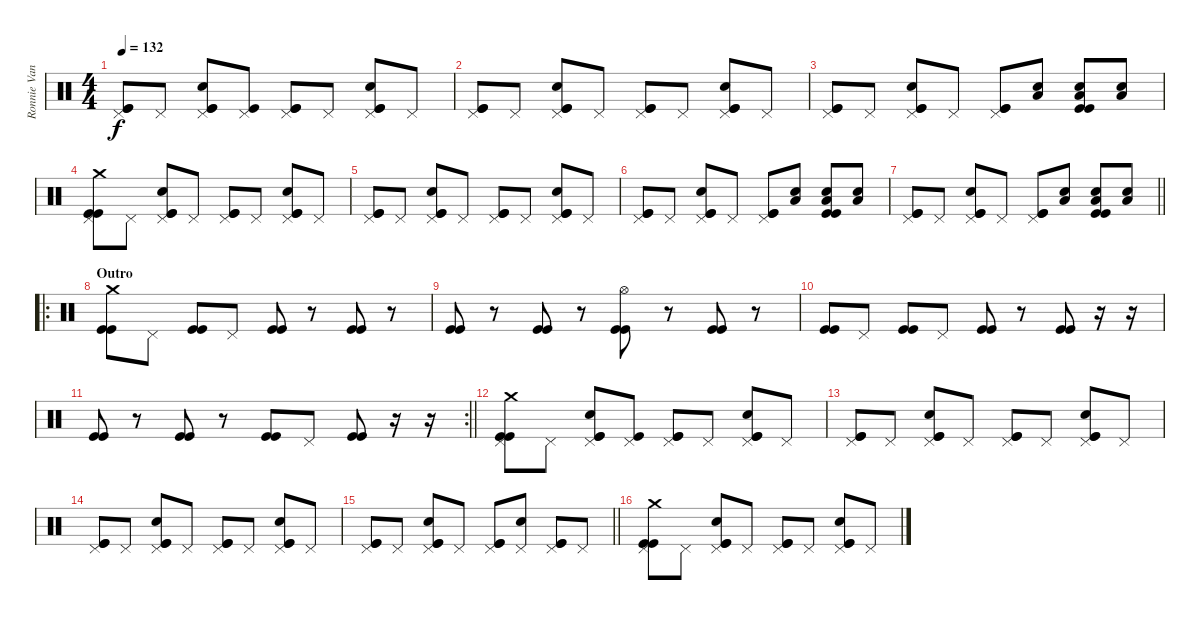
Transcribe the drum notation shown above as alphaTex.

\track ("Ronnie Vanucci" "Ronnie Van") {instrument percussion}
\staff {score}
\articulation defaults
\ts (4 4)
\tempo 132
\clef neutral
\ks c
("Pedal Hi-Hat (hit)" "Kick (hit)" "Kick (hit)").8{dy f} "Pedal Hi-Hat (hit)".8 ("Pedal Hi-Hat (hit)" "Electric Snare (hit)" "Kick (hit)" "Kick (hit)").8 ("Pedal Hi-Hat (hit)" "Kick (hit)").8 ("Pedal Hi-Hat (hit)" "Kick (hit)" "Kick (hit)").8 "Pedal Hi-Hat (hit)".8 ("Pedal Hi-Hat (hit)" "Electric Snare (hit)" "Kick (hit)" "Kick (hit)").8 "Pedal Hi-Hat (hit)".8 |
("Pedal Hi-Hat (hit)" "Kick (hit)" "Kick (hit)").8 "Pedal Hi-Hat (hit)".8 ("Pedal Hi-Hat (hit)" "Electric Snare (hit)" "Kick (hit)" "Kick (hit)").8 "Pedal Hi-Hat (hit)".8 ("Pedal Hi-Hat (hit)" "Kick (hit)" "Kick (hit)").8 "Pedal Hi-Hat (hit)".8 ("Pedal Hi-Hat (hit)" "Electric Snare (hit)" "Kick (hit)" "Kick (hit)").8 "Pedal Hi-Hat (hit)".8 |
("Pedal Hi-Hat (hit)" "Kick (hit)" "Kick (hit)").8 "Pedal Hi-Hat (hit)".8 ("Pedal Hi-Hat (hit)" "Electric Snare (hit)" "Kick (hit)" "Kick (hit)").8 "Pedal Hi-Hat (hit)".8 ("Pedal Hi-Hat (hit)" "Kick (hit)" "Kick (hit)").8 ("Low Floor Tom (hit)" "Electric Snare (hit)").8 ("Low Floor Tom (hit)" "Electric Snare (hit)" "Kick (hit)" "Kick (hit)").8 ("Low Floor Tom (hit)" "Electric Snare (hit)").8 |
("Pedal Hi-Hat (hit)" "Crash medium (hit)" "Kick (hit)" "Kick (hit)").8 "Pedal Hi-Hat (hit)".8 ("Pedal Hi-Hat (hit)" "Electric Snare (hit)" "Kick (hit)" "Kick (hit)").8 "Pedal Hi-Hat (hit)".8 ("Pedal Hi-Hat (hit)" "Kick (hit)" "Kick (hit)").8 "Pedal Hi-Hat (hit)".8 ("Pedal Hi-Hat (hit)" "Electric Snare (hit)" "Kick (hit)" "Kick (hit)").8 "Pedal Hi-Hat (hit)".8 |
("Pedal Hi-Hat (hit)" "Kick (hit)" "Kick (hit)").8 "Pedal Hi-Hat (hit)".8 ("Pedal Hi-Hat (hit)" "Electric Snare (hit)" "Kick (hit)" "Kick (hit)").8 "Pedal Hi-Hat (hit)".8 ("Pedal Hi-Hat (hit)" "Kick (hit)" "Kick (hit)").8 "Pedal Hi-Hat (hit)".8 ("Pedal Hi-Hat (hit)" "Electric Snare (hit)" "Kick (hit)" "Kick (hit)").8 "Pedal Hi-Hat (hit)".8 |
("Pedal Hi-Hat (hit)" "Kick (hit)" "Kick (hit)").8 "Pedal Hi-Hat (hit)".8 ("Pedal Hi-Hat (hit)" "Electric Snare (hit)" "Kick (hit)" "Kick (hit)").8 "Pedal Hi-Hat (hit)".8 ("Pedal Hi-Hat (hit)" "Kick (hit)" "Kick (hit)").8 ("Low Floor Tom (hit)" "Electric Snare (hit)").8 ("Low Floor Tom (hit)" "Electric Snare (hit)" "Kick (hit)" "Kick (hit)").8 ("Low Floor Tom (hit)" "Electric Snare (hit)").8 |
\barLineRight lightlight
("Pedal Hi-Hat (hit)" "Kick (hit)" "Kick (hit)").8 "Pedal Hi-Hat (hit)".8 ("Pedal Hi-Hat (hit)" "Electric Snare (hit)" "Kick (hit)" "Kick (hit)").8 "Pedal Hi-Hat (hit)".8 ("Pedal Hi-Hat (hit)" "Kick (hit)" "Kick (hit)").8 ("Low Floor Tom (hit)" "Electric Snare (hit)").8 ("Low Floor Tom (hit)" "Electric Snare (hit)" "Kick (hit)" "Kick (hit)").8 ("Low Floor Tom (hit)" "Electric Snare (hit)").8 |
\ro
\section ("" "Outro")
("Crash medium (hit)" "Kick (hit)" "Kick (hit)").8 "Pedal Hi-Hat (hit)".8 ("Kick (hit)" "Kick (hit)").8 "Pedal Hi-Hat (hit)".8 ("Kick (hit)" "Kick (hit)").8 r.8 ("Kick (hit)" "Kick (hit)").8 r.8 |
("Kick (hit)" "Kick (hit)").8 r.8 ("Kick (hit)" "Kick (hit)").8 r.8 ("Hi-Hat (open)" "Kick (hit)" "Kick (hit)").8 r.8 ("Kick (hit)" "Kick (hit)").8 r.8 |
("Kick (hit)" "Kick (hit)").8 "Pedal Hi-Hat (hit)".8 ("Kick (hit)" "Kick (hit)").8 "Pedal Hi-Hat (hit)".8 ("Kick (hit)" "Kick (hit)").8 r.8 ("Kick (hit)" "Kick (hit)").8 r.16 r.16 |
\rc 2
\barLineRight lightlight
("Kick (hit)" "Kick (hit)").8 r.8 ("Kick (hit)" "Kick (hit)").8 r.8 ("Kick (hit)" "Kick (hit)").8 "Pedal Hi-Hat (hit)".8 ("Kick (hit)" "Kick (hit)").8 r.16 r.16 |
("Pedal Hi-Hat (hit)" "Crash medium (hit)" "Kick (hit)" "Kick (hit)").8 "Pedal Hi-Hat (hit)".8 ("Pedal Hi-Hat (hit)" "Electric Snare (hit)" "Kick (hit)" "Kick (hit)").8 ("Pedal Hi-Hat (hit)" "Kick (hit)").8 ("Pedal Hi-Hat (hit)" "Kick (hit)" "Kick (hit)").8 "Pedal Hi-Hat (hit)".8 ("Pedal Hi-Hat (hit)" "Electric Snare (hit)" "Kick (hit)" "Kick (hit)").8 "Pedal Hi-Hat (hit)".8 |
("Pedal Hi-Hat (hit)" "Kick (hit)" "Kick (hit)").8 "Pedal Hi-Hat (hit)".8 ("Pedal Hi-Hat (hit)" "Electric Snare (hit)" "Kick (hit)" "Kick (hit)").8 "Pedal Hi-Hat (hit)".8 ("Pedal Hi-Hat (hit)" "Kick (hit)" "Kick (hit)").8 "Pedal Hi-Hat (hit)".8 ("Pedal Hi-Hat (hit)" "Electric Snare (hit)" "Kick (hit)" "Kick (hit)").8 "Pedal Hi-Hat (hit)".8 |
("Pedal Hi-Hat (hit)" "Kick (hit)" "Kick (hit)").8 "Pedal Hi-Hat (hit)".8 ("Pedal Hi-Hat (hit)" "Electric Snare (hit)" "Kick (hit)" "Kick (hit)").8 "Pedal Hi-Hat (hit)".8 ("Pedal Hi-Hat (hit)" "Kick (hit)" "Kick (hit)").8 "Pedal Hi-Hat (hit)".8 ("Pedal Hi-Hat (hit)" "Electric Snare (hit)" "Kick (hit)" "Kick (hit)").8 "Pedal Hi-Hat (hit)".8 |
\barLineRight lightlight
("Pedal Hi-Hat (hit)" "Kick (hit)" "Kick (hit)").8 "Pedal Hi-Hat (hit)".8 ("Pedal Hi-Hat (hit)" "Electric Snare (hit)" "Kick (hit)" "Kick (hit)").8 "Pedal Hi-Hat (hit)".8 ("Pedal Hi-Hat (hit)" "Kick (hit)" "Kick (hit)").8 ("Pedal Hi-Hat (hit)" "Electric Snare (hit)").8 ("Pedal Hi-Hat (hit)" "Kick (hit)" "Kick (hit)").8 "Pedal Hi-Hat (hit)".8 |
("Pedal Hi-Hat (hit)" "Crash medium (hit)" "Kick (hit)" "Kick (hit)").8 "Pedal Hi-Hat (hit)".8 ("Pedal Hi-Hat (hit)" "Electric Snare (hit)" "Kick (hit)" "Kick (hit)").8 "Pedal Hi-Hat (hit)".8 ("Pedal Hi-Hat (hit)" "Kick (hit)" "Kick (hit)").8 "Pedal Hi-Hat (hit)".8 ("Pedal Hi-Hat (hit)" "Electric Snare (hit)" "Kick (hit)" "Kick (hit)").8 "Pedal Hi-Hat (hit)".8
